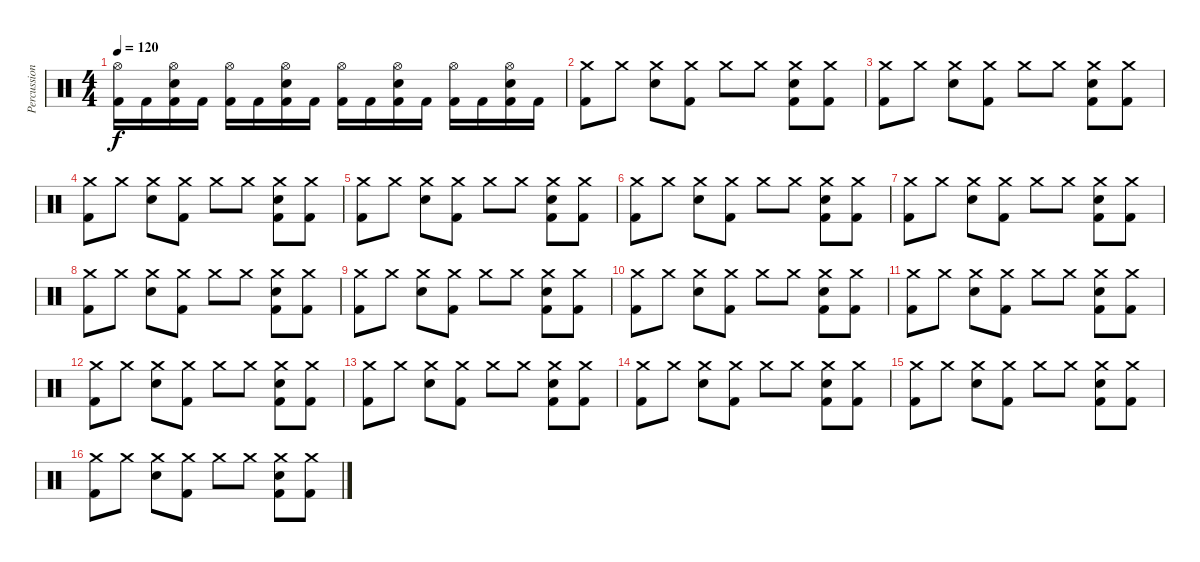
\track ("Percussion" "Percussion") {instrument percussion}
\staff {score}
\articulation defaults
\ts (4 4)
\tempo 120
\clef neutral
\ks c
("Hi-Hat (open)" "Kick (hit) 2").16{dy f} "Kick (hit) 2".16 ("Hi-Hat (open)" "Electric Snare (hit)" "Kick (hit) 2").16 "Kick (hit) 2".16 ("Hi-Hat (open)" "Kick (hit) 2").16 "Kick (hit) 2".16 ("Hi-Hat (open)" "Electric Snare (hit)" "Kick (hit) 2").16 "Kick (hit) 2".16 ("Hi-Hat (open)" "Kick (hit) 2").16 "Kick (hit) 2".16 ("Hi-Hat (open)" "Electric Snare (hit)" "Kick (hit) 2").16 "Kick (hit) 2".16 ("Hi-Hat (open)" "Kick (hit) 2").16 "Kick (hit) 2".16 ("Hi-Hat (open)" "Electric Snare (hit)" "Kick (hit) 2").16 "Kick (hit) 2".16 |
("Crash medium (hit)" "Kick (hit) 2").8 "Crash medium (hit)".8 ("Crash medium (hit)" "Electric Snare (hit)").8 ("Crash medium (hit)" "Kick (hit) 2").8 "Crash medium (hit)".8 "Crash medium (hit)".8 ("Crash medium (hit)" "Electric Snare (hit)" "Kick (hit) 2").8 ("Crash medium (hit)" "Kick (hit) 2").8 |
("Crash medium (hit)" "Kick (hit) 2").8 "Crash medium (hit)".8 ("Crash medium (hit)" "Electric Snare (hit)").8 ("Crash medium (hit)" "Kick (hit) 2").8 "Crash medium (hit)".8 "Crash medium (hit)".8 ("Crash medium (hit)" "Electric Snare (hit)" "Kick (hit) 2").8 ("Crash medium (hit)" "Kick (hit) 2").8 |
("Crash medium (hit)" "Kick (hit) 2").8 "Crash medium (hit)".8 ("Crash medium (hit)" "Electric Snare (hit)").8 ("Crash medium (hit)" "Kick (hit) 2").8 "Crash medium (hit)".8 "Crash medium (hit)".8 ("Crash medium (hit)" "Electric Snare (hit)" "Kick (hit) 2").8 ("Crash medium (hit)" "Kick (hit) 2").8 |
("Crash medium (hit)" "Kick (hit) 2").8 "Crash medium (hit)".8 ("Crash medium (hit)" "Electric Snare (hit)").8 ("Crash medium (hit)" "Kick (hit) 2").8 "Crash medium (hit)".8 "Crash medium (hit)".8 ("Crash medium (hit)" "Electric Snare (hit)" "Kick (hit) 2").8 ("Crash medium (hit)" "Kick (hit) 2").8 |
("Crash medium (hit)" "Kick (hit) 2").8 "Crash medium (hit)".8 ("Crash medium (hit)" "Electric Snare (hit)").8 ("Crash medium (hit)" "Kick (hit) 2").8 "Crash medium (hit)".8 "Crash medium (hit)".8 ("Crash medium (hit)" "Electric Snare (hit)" "Kick (hit) 2").8 ("Crash medium (hit)" "Kick (hit) 2").8 |
("Crash medium (hit)" "Kick (hit) 2").8 "Crash medium (hit)".8 ("Crash medium (hit)" "Electric Snare (hit)").8 ("Crash medium (hit)" "Kick (hit) 2").8 "Crash medium (hit)".8 "Crash medium (hit)".8 ("Crash medium (hit)" "Electric Snare (hit)" "Kick (hit) 2").8 ("Crash medium (hit)" "Kick (hit) 2").8 |
("Crash medium (hit)" "Kick (hit) 2").8 "Crash medium (hit)".8 ("Crash medium (hit)" "Electric Snare (hit)").8 ("Crash medium (hit)" "Kick (hit) 2").8 "Crash medium (hit)".8 "Crash medium (hit)".8 ("Crash medium (hit)" "Electric Snare (hit)" "Kick (hit) 2").8 ("Crash medium (hit)" "Kick (hit) 2").8 |
("Crash medium (hit)" "Kick (hit) 2").8 "Crash medium (hit)".8 ("Crash medium (hit)" "Electric Snare (hit)").8 ("Crash medium (hit)" "Kick (hit) 2").8 "Crash medium (hit)".8 "Crash medium (hit)".8 ("Crash medium (hit)" "Electric Snare (hit)" "Kick (hit) 2").8 ("Crash medium (hit)" "Kick (hit) 2").8 |
("Crash medium (hit)" "Kick (hit) 2").8 "Crash medium (hit)".8 ("Crash medium (hit)" "Electric Snare (hit)").8 ("Crash medium (hit)" "Kick (hit) 2").8 "Crash medium (hit)".8 "Crash medium (hit)".8 ("Crash medium (hit)" "Electric Snare (hit)" "Kick (hit) 2").8 ("Crash medium (hit)" "Kick (hit) 2").8 |
("Crash medium (hit)" "Kick (hit) 2").8 "Crash medium (hit)".8 ("Crash medium (hit)" "Electric Snare (hit)").8 ("Crash medium (hit)" "Kick (hit) 2").8 "Crash medium (hit)".8 "Crash medium (hit)".8 ("Crash medium (hit)" "Electric Snare (hit)" "Kick (hit) 2").8 ("Crash medium (hit)" "Kick (hit) 2").8 |
("Crash medium (hit)" "Kick (hit) 2").8 "Crash medium (hit)".8 ("Crash medium (hit)" "Electric Snare (hit)").8 ("Crash medium (hit)" "Kick (hit) 2").8 "Crash medium (hit)".8 "Crash medium (hit)".8 ("Crash medium (hit)" "Electric Snare (hit)" "Kick (hit) 2").8 ("Crash medium (hit)" "Kick (hit) 2").8 |
("Crash medium (hit)" "Kick (hit) 2").8 "Crash medium (hit)".8 ("Crash medium (hit)" "Electric Snare (hit)").8 ("Crash medium (hit)" "Kick (hit) 2").8 "Crash medium (hit)".8 "Crash medium (hit)".8 ("Crash medium (hit)" "Electric Snare (hit)" "Kick (hit) 2").8 ("Crash medium (hit)" "Kick (hit) 2").8 |
("Crash medium (hit)" "Kick (hit) 2").8 "Crash medium (hit)".8 ("Crash medium (hit)" "Electric Snare (hit)").8 ("Crash medium (hit)" "Kick (hit) 2").8 "Crash medium (hit)".8 "Crash medium (hit)".8 ("Crash medium (hit)" "Electric Snare (hit)" "Kick (hit) 2").8 ("Crash medium (hit)" "Kick (hit) 2").8 |
("Crash medium (hit)" "Kick (hit) 2").8 "Crash medium (hit)".8 ("Crash medium (hit)" "Electric Snare (hit)").8 ("Crash medium (hit)" "Kick (hit) 2").8 "Crash medium (hit)".8 "Crash medium (hit)".8 ("Crash medium (hit)" "Electric Snare (hit)" "Kick (hit) 2").8 ("Crash medium (hit)" "Kick (hit) 2").8 |
("Crash medium (hit)" "Kick (hit) 2").8 "Crash medium (hit)".8 ("Crash medium (hit)" "Electric Snare (hit)").8 ("Crash medium (hit)" "Kick (hit) 2").8 "Crash medium (hit)".8 "Crash medium (hit)".8 ("Crash medium (hit)" "Electric Snare (hit)" "Kick (hit) 2").8 ("Crash medium (hit)" "Kick (hit) 2").8
